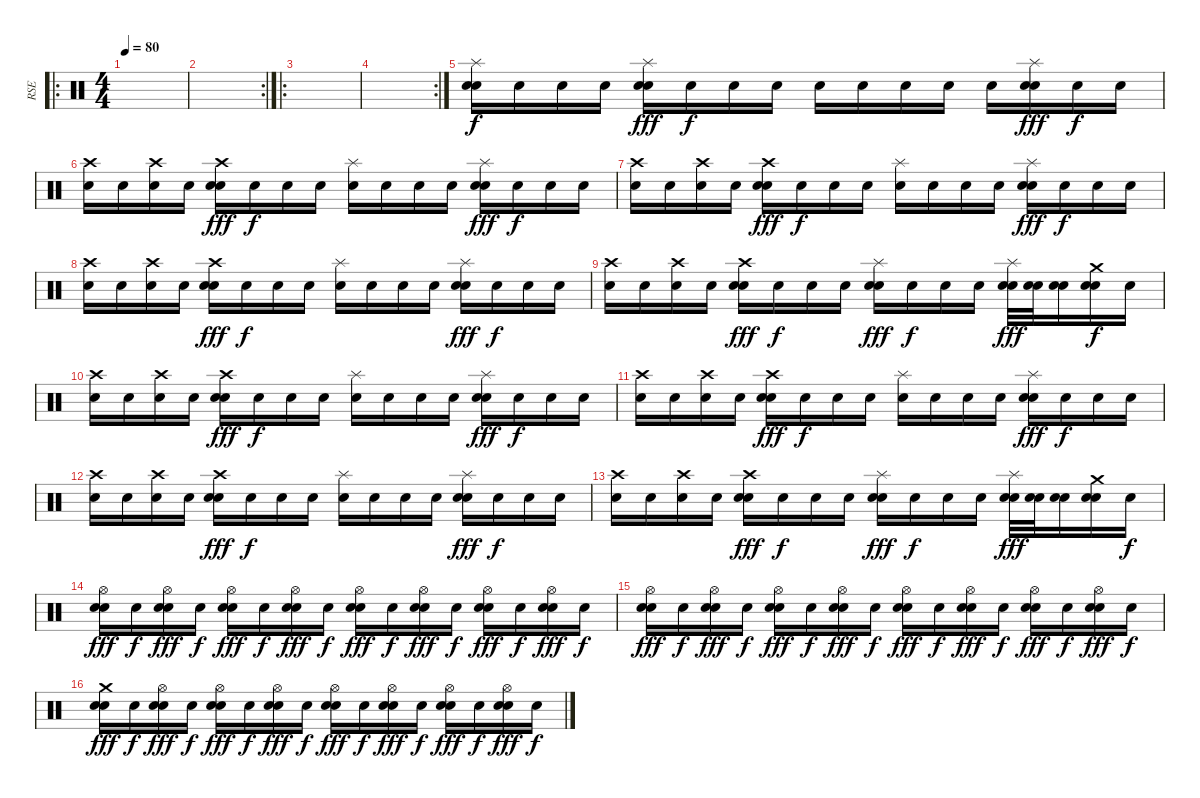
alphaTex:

\track ("RSE" "RSE") {instrument percussion}
\staff
\articulation defaults
\ro
\ts (4 4)
\tempo 80
\clef neutral
\ks c
|
\rc 2
|
\ro
|
\rc 2
|
("Splash (hit)" "Electric Snare (hit)" "Snare (hit)").16 "Snare (hit)".16{dy f} "Snare (hit)".16 "Snare (hit)".16 ("Splash (hit)" "Electric Snare (hit)" "Snare (hit)").16{dy fff} "Snare (hit)".16{dy f} "Snare (hit)".16 "Snare (hit)".16 "Snare (hit)".16 "Snare (hit)".16 "Snare (hit)".16 "Snare (hit)".16 "Snare (hit)".16 ("Splash (hit)" "Electric Snare (hit)" "Snare (hit)").16{dy fff} "Snare (hit)".16{dy f} "Snare (hit)".16 |
("Crash high (hit)" "Snare (hit)").16 "Snare (hit)".16 ("Crash high (hit)" "Snare (hit)").16 "Snare (hit)".16 ("Crash high (hit)" "Electric Snare (hit)" "Snare (hit)").16{dy fff} "Snare (hit)".16{dy f} "Snare (hit)".16 "Snare (hit)".16 ("Splash (hit)" "Snare (hit)").16 "Snare (hit)".16 "Snare (hit)".16 "Snare (hit)".16 ("Splash (hit)" "Electric Snare (hit)" "Snare (hit)").16{dy fff} "Snare (hit)".16{dy f} "Snare (hit)".16 "Snare (hit)".16 |
("Crash high (hit)" "Snare (hit)").16 "Snare (hit)".16 ("Crash high (hit)" "Snare (hit)").16 "Snare (hit)".16 ("Crash high (hit)" "Electric Snare (hit)" "Snare (hit)").16{dy fff} "Snare (hit)".16{dy f} "Snare (hit)".16 "Snare (hit)".16 ("Splash (hit)" "Snare (hit)").16 "Snare (hit)".16 "Snare (hit)".16 "Snare (hit)".16 ("Splash (hit)" "Electric Snare (hit)" "Snare (hit)").16{dy fff} "Snare (hit)".16{dy f} "Snare (hit)".16 "Snare (hit)".16 |
("Crash high (hit)" "Snare (hit)").16 "Snare (hit)".16 ("Crash high (hit)" "Snare (hit)").16 "Snare (hit)".16 ("Crash high (hit)" "Electric Snare (hit)" "Snare (hit)").16{dy fff} "Snare (hit)".16{dy f} "Snare (hit)".16 "Snare (hit)".16 ("Splash (hit)" "Snare (hit)").16 "Snare (hit)".16 "Snare (hit)".16 "Snare (hit)".16 ("Splash (hit)" "Electric Snare (hit)" "Snare (hit)").16{dy fff} "Snare (hit)".16{dy f} "Snare (hit)".16 "Snare (hit)".16 |
("Crash high (hit)" "Snare (hit)").16 "Snare (hit)".16 ("Crash high (hit)" "Snare (hit)").16 "Snare (hit)".16 ("Crash high (hit)" "Electric Snare (hit)" "Snare (hit)").16{dy fff} "Snare (hit)".16{dy f} "Snare (hit)".16 "Snare (hit)".16 ("Splash (hit)" "Electric Snare (hit)" "Snare (hit)").16{dy fff} "Snare (hit)".16{dy f} "Snare (hit)".16 "Snare (hit)".16 ("Splash (hit)" "Electric Snare (hit)" "Snare (hit)").32{dy fff} ("Electric Snare (hit)" "Snare (hit)").32 ("Electric Snare (hit)" "Snare (hit)").16 ("Crash medium (hit)" "Electric Snare (hit)" "Snare (hit)").16{dy f} "Snare (hit)".16 |
("Crash high (hit)" "Snare (hit)").16 "Snare (hit)".16 ("Crash high (hit)" "Snare (hit)").16 "Snare (hit)".16 ("Crash high (hit)" "Electric Snare (hit)" "Snare (hit)").16{dy fff} "Snare (hit)".16{dy f} "Snare (hit)".16 "Snare (hit)".16 ("Splash (hit)" "Snare (hit)").16 "Snare (hit)".16 "Snare (hit)".16 "Snare (hit)".16 ("Splash (hit)" "Electric Snare (hit)" "Snare (hit)").16{dy fff} "Snare (hit)".16{dy f} "Snare (hit)".16 "Snare (hit)".16 |
("Crash high (hit)" "Snare (hit)").16 "Snare (hit)".16 ("Crash high (hit)" "Snare (hit)").16 "Snare (hit)".16 ("Crash high (hit)" "Electric Snare (hit)" "Snare (hit)").16{dy fff} "Snare (hit)".16{dy f} "Snare (hit)".16 "Snare (hit)".16 ("Splash (hit)" "Snare (hit)").16 "Snare (hit)".16 "Snare (hit)".16 "Snare (hit)".16 ("Splash (hit)" "Electric Snare (hit)" "Snare (hit)").16{dy fff} "Snare (hit)".16{dy f} "Snare (hit)".16 "Snare (hit)".16 |
("Crash high (hit)" "Snare (hit)").16 "Snare (hit)".16 ("Crash high (hit)" "Snare (hit)").16 "Snare (hit)".16 ("Crash high (hit)" "Electric Snare (hit)" "Snare (hit)").16{dy fff} "Snare (hit)".16{dy f} "Snare (hit)".16 "Snare (hit)".16 ("Splash (hit)" "Snare (hit)").16 "Snare (hit)".16 "Snare (hit)".16 "Snare (hit)".16 ("Splash (hit)" "Electric Snare (hit)" "Snare (hit)").16{dy fff} "Snare (hit)".16{dy f} "Snare (hit)".16 "Snare (hit)".16 |
("Crash high (hit)" "Snare (hit)").16 "Snare (hit)".16 ("Crash high (hit)" "Snare (hit)").16 "Snare (hit)".16 ("Crash high (hit)" "Electric Snare (hit)" "Snare (hit)").16{dy fff} "Snare (hit)".16{dy f} "Snare (hit)".16 "Snare (hit)".16 ("Splash (hit)" "Electric Snare (hit)" "Snare (hit)").16{dy fff} "Snare (hit)".16{dy f} "Snare (hit)".16 "Snare (hit)".16 ("Splash (hit)" "Electric Snare (hit)" "Snare (hit)").32{dy fff} ("Electric Snare (hit)" "Snare (hit)").32 ("Electric Snare (hit)" "Snare (hit)").16 ("Crash medium (hit)" "Electric Snare (hit)" "Snare (hit)").16 "Snare (hit)".16{dy f} |
("Hi-Hat (open)" "Electric Snare (hit)" "Snare (hit)").16{dy fff} "Snare (hit)".16{dy f} ("Hi-Hat (open)" "Electric Snare (hit)" "Snare (hit)").16{dy fff} "Snare (hit)".16{dy f} ("Hi-Hat (open)" "Electric Snare (hit)" "Snare (hit)").16{dy fff} "Snare (hit)".16{dy f} ("Hi-Hat (open)" "Electric Snare (hit)" "Snare (hit)").16{dy fff} "Snare (hit)".16{dy f} ("Hi-Hat (open)" "Electric Snare (hit)" "Snare (hit)").16{dy fff} "Snare (hit)".16{dy f} ("Hi-Hat (open)" "Electric Snare (hit)" "Snare (hit)").16{dy fff} "Snare (hit)".16{dy f} ("Hi-Hat (open)" "Electric Snare (hit)" "Snare (hit)").16{dy fff} "Snare (hit)".16{dy f} ("Hi-Hat (open)" "Electric Snare (hit)" "Snare (hit)").16{dy fff} "Snare (hit)".16{dy f} |
("Hi-Hat (open)" "Electric Snare (hit)" "Snare (hit)").16{dy fff} "Snare (hit)".16{dy f} ("Hi-Hat (open)" "Electric Snare (hit)" "Snare (hit)").16{dy fff} "Snare (hit)".16{dy f} ("Hi-Hat (open)" "Electric Snare (hit)" "Snare (hit)").16{dy fff} "Snare (hit)".16{dy f} ("Hi-Hat (open)" "Electric Snare (hit)" "Snare (hit)").16{dy fff} "Snare (hit)".16{dy f} ("Hi-Hat (open)" "Electric Snare (hit)" "Snare (hit)").16{dy fff} "Snare (hit)".16{dy f} ("Hi-Hat (open)" "Electric Snare (hit)" "Snare (hit)").16{dy fff} "Snare (hit)".16{dy f} ("Hi-Hat (open)" "Electric Snare (hit)" "Snare (hit)").16{dy fff} "Snare (hit)".16{dy f} ("Hi-Hat (open)" "Electric Snare (hit)" "Snare (hit)").16{dy fff} "Snare (hit)".16{dy f} |
("Crash medium (hit)" "Electric Snare (hit)" "Snare (hit)").16{dy fff} "Snare (hit)".16{dy f} ("Hi-Hat (open)" "Electric Snare (hit)" "Snare (hit)").16{dy fff} "Snare (hit)".16{dy f} ("Hi-Hat (open)" "Electric Snare (hit)" "Snare (hit)").16{dy fff} "Snare (hit)".16{dy f} ("Hi-Hat (open)" "Electric Snare (hit)" "Snare (hit)").16{dy fff} "Snare (hit)".16{dy f} ("Hi-Hat (open)" "Electric Snare (hit)" "Snare (hit)").16{dy fff} "Snare (hit)".16{dy f} ("Hi-Hat (open)" "Electric Snare (hit)" "Snare (hit)").16{dy fff} "Snare (hit)".16{dy f} ("Hi-Hat (open)" "Electric Snare (hit)" "Snare (hit)").16{dy fff} "Snare (hit)".16{dy f} ("Hi-Hat (open)" "Electric Snare (hit)" "Snare (hit)").16{dy fff} "Snare (hit)".16{dy f}
